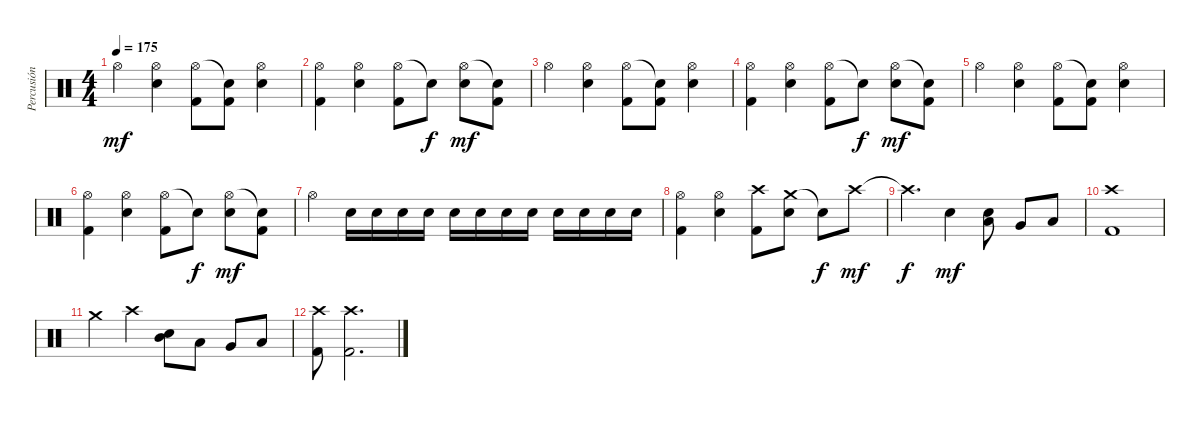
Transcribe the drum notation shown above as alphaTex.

\track ("Percusión" "Percusión") {instrument percussion}
\staff {score}
\articulation defaults
\ts (4 4)
\tempo 175
\clef neutral
\ks c "Hi-Hat (open)".4{dy mf}
("Hi-Hat (open)" "Snare (hit) 2").4 ("Hi-Hat (open)" "Kick (hit) 2").8 ("Snare (hit)"{t} "Kick (hit) 2").8 ("Hi-Hat (open)" "Snare (hit) 2").4 |
("Hi-Hat (open)" "Kick (hit) 2").4 ("Hi-Hat (open)" "Snare (hit) 2").4 ("Hi-Hat (open)" "Kick (hit) 2").8 "Snare (hit)"{t}.8{dy f} ("Hi-Hat (open)" "Snare (hit) 2").8{dy mf} ("Snare (hit)"{t} "Kick (hit) 2").8 |
"Hi-Hat (open)".4 ("Hi-Hat (open)" "Snare (hit) 2").4 ("Hi-Hat (open)" "Kick (hit) 2").8 ("Snare (hit)"{t} "Kick (hit) 2").8 ("Hi-Hat (open)" "Snare (hit) 2").4 |
("Hi-Hat (open)" "Kick (hit) 2").4 ("Hi-Hat (open)" "Snare (hit) 2").4 ("Hi-Hat (open)" "Kick (hit) 2").8 "Snare (hit)"{t}.8{dy f} ("Hi-Hat (open)" "Snare (hit) 2").8{dy mf} ("Snare (hit)"{t} "Kick (hit) 2").8 |
"Hi-Hat (open)".4 ("Hi-Hat (open)" "Snare (hit) 2").4 ("Hi-Hat (open)" "Kick (hit) 2").8 ("Snare (hit)"{t} "Kick (hit) 2").8 ("Hi-Hat (open)" "Snare (hit) 2").4 |
("Hi-Hat (open)" "Kick (hit) 2").4 ("Hi-Hat (open)" "Snare (hit) 2").4 ("Hi-Hat (open)" "Kick (hit) 2").8 "Snare (hit)"{t}.8{dy f} ("Hi-Hat (open)" "Snare (hit) 2").8{dy mf} ("Snare (hit)"{t} "Kick (hit) 2").8 |
"Hi-Hat (open)".4 "Snare (hit) 2".16 "Snare (hit) 2".16 "Snare (hit) 2".16 "Snare (hit) 2".16 "Snare (hit) 2".16 "Snare (hit) 2".16 "Snare (hit) 2".16 "Snare (hit) 2".16 "Snare (hit) 2".16 "Snare (hit) 2".16 "Snare (hit) 2".16 "Snare (hit) 2".16 |
("Hi-Hat (open)" "Kick (hit) 2").4 ("Hi-Hat (open)" "Snare (hit) 2").4 ("Crash high (hit)" "Kick (hit) 2").8 ("Crash medium (hit)" "Snare (hit) 2").8 "Snare (hit)"{t}.8{dy f} "Crash high (hit)".8{dy mf} |
"Crash high (hit)"{t}.4{d dy f} "Snare (hit) 2".4{dy mf} ("Low Tom (hit)" "Snare (hit) 2").8 "Very Low Tom (hit)".8 "Low Floor Tom (hit)".8 |
("Crash high (hit)" "Kick (hit) 2").1 |
"Crash medium (hit)".4 "Crash high (hit)".4 ("Mid Tom (hit)" "Snare (hit) 2").8 "Low Tom (hit)".8 "Very Low Tom (hit)".8 "Low Floor Tom (hit)".8 |
("Crash high (hit)" "Kick (hit) 2").8 ("Crash high (hit)" "Kick (hit) 2").2{d}
